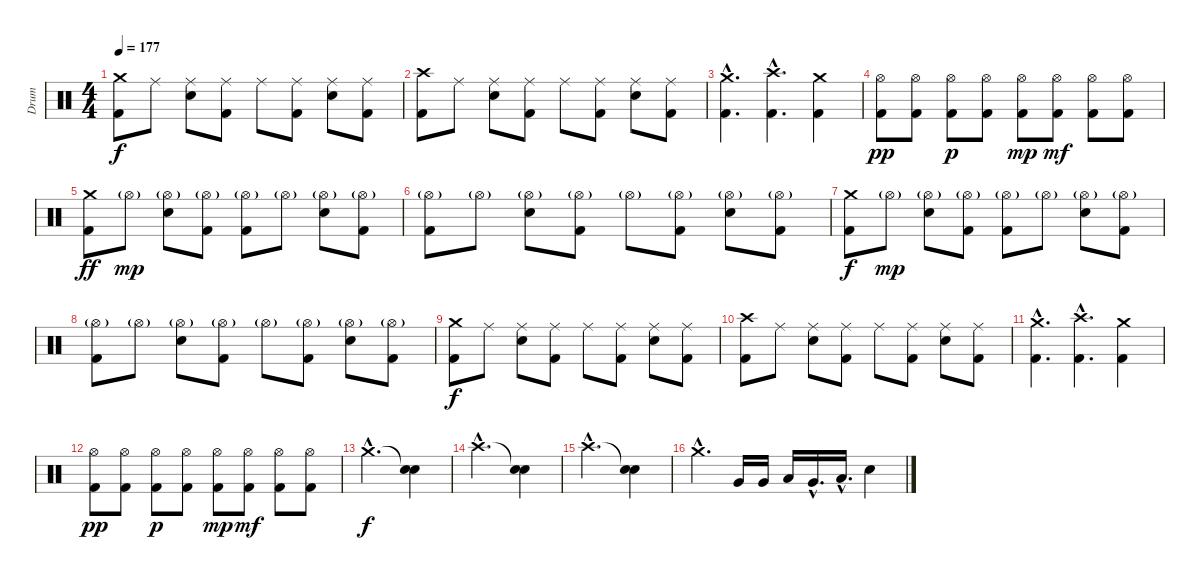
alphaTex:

\track ("Drum" "Drum") {instrument percussion}
\staff {score}
\articulation defaults
\ts (4 4)
\tempo 177
\clef neutral
\ks c
("Crash medium (hit)" "Kick (hit) 2").8{dy f} "Ride (middle)".8 ("Ride (middle)" "Electric Snare (hit)").8 ("Ride (middle)" "Kick (hit) 2").8 "Ride (middle)".8 ("Ride (middle)" "Kick (hit) 2").8 ("Ride (middle)" "Electric Snare (hit)").8 ("Ride (middle)" "Kick (hit) 2").8 |
("Crash high (hit)" "Kick (hit) 2").8 "Ride (middle)".8 ("Ride (middle)" "Electric Snare (hit)").8 ("Ride (middle)" "Kick (hit) 2").8 "Ride (middle)".8 ("Ride (middle)" "Kick (hit) 2").8 ("Ride (middle)" "Electric Snare (hit)").8 ("Ride (middle)" "Kick (hit) 2").8 |
("Crash medium (hit)"{hac} "Kick (hit) 2"{hac}).4{d} ("Crash high (hit)"{hac} "Kick (hit) 2"{hac}).4{d} ("Crash medium (hit)" "Kick (hit) 2").4 |
("Hi-Hat (open)" "Kick (hit) 2").8{dy pp} ("Hi-Hat (open)" "Kick (hit) 2").8 ("Hi-Hat (open)" "Kick (hit) 2").8{dy p} ("Hi-Hat (open)" "Kick (hit) 2").8 ("Hi-Hat (open)" "Kick (hit) 2").8{dy mp} ("Hi-Hat (open)" "Kick (hit) 2").8{dy mf} ("Hi-Hat (open)" "Kick (hit) 2").8 ("Hi-Hat (open)" "Kick (hit) 2").8 |
("Crash medium (hit)" "Kick (hit) 2").8{dy ff} "Hi-Hat (open)"{g}.8{dy mp} ("Hi-Hat (open)"{g} "Electric Snare (hit)").8 ("Hi-Hat (open)"{g} "Kick (hit) 2").8 ("Hi-Hat (open)"{g} "Kick (hit) 2").8 "Hi-Hat (open)"{g}.8 ("Hi-Hat (open)"{g} "Electric Snare (hit)").8 ("Hi-Hat (open)"{g} "Kick (hit) 2").8 |
("Hi-Hat (open)"{g} "Kick (hit) 2").8 "Hi-Hat (open)"{g}.8 ("Hi-Hat (open)"{g} "Electric Snare (hit)").8 ("Hi-Hat (open)"{g} "Kick (hit) 2").8 "Hi-Hat (open)"{g}.8 ("Hi-Hat (open)"{g} "Kick (hit) 2").8 ("Hi-Hat (open)"{g} "Electric Snare (hit)").8 ("Hi-Hat (open)"{g} "Kick (hit) 2").8 |
("Crash medium (hit)" "Kick (hit) 2").8{dy f} "Hi-Hat (open)"{g}.8{dy mp} ("Hi-Hat (open)"{g} "Electric Snare (hit)").8 ("Hi-Hat (open)"{g} "Kick (hit) 2").8 ("Hi-Hat (open)"{g} "Kick (hit) 2").8 "Hi-Hat (open)"{g}.8 ("Hi-Hat (open)"{g} "Electric Snare (hit)").8 ("Hi-Hat (open)"{g} "Kick (hit) 2").8 |
("Hi-Hat (open)"{g} "Kick (hit) 2").8 "Hi-Hat (open)"{g}.8 ("Hi-Hat (open)"{g} "Electric Snare (hit)").8 ("Hi-Hat (open)"{g} "Kick (hit) 2").8 "Hi-Hat (open)"{g}.8 ("Hi-Hat (open)"{g} "Kick (hit) 2").8 ("Hi-Hat (open)"{g} "Electric Snare (hit)").8 ("Hi-Hat (open)"{g} "Kick (hit) 2").8 |
("Crash medium (hit)" "Kick (hit) 2").8{dy f} "Ride (middle)".8 ("Ride (middle)" "Electric Snare (hit)").8 ("Ride (middle)" "Kick (hit) 2").8 "Ride (middle)".8 ("Ride (middle)" "Kick (hit) 2").8 ("Ride (middle)" "Electric Snare (hit)").8 ("Ride (middle)" "Kick (hit) 2").8 |
("Crash high (hit)" "Kick (hit) 2").8 "Ride (middle)".8 ("Ride (middle)" "Electric Snare (hit)").8 ("Ride (middle)" "Kick (hit) 2").8 "Ride (middle)".8 ("Ride (middle)" "Kick (hit) 2").8 ("Ride (middle)" "Electric Snare (hit)").8 ("Ride (middle)" "Kick (hit) 2").8 |
("Crash medium (hit)"{hac} "Kick (hit) 2"{hac}).4{d} ("Crash high (hit)"{hac} "Kick (hit) 2"{hac}).4{d} ("Crash medium (hit)" "Kick (hit) 2").4 |
("Hi-Hat (open)" "Kick (hit) 2").8{dy pp} ("Hi-Hat (open)" "Kick (hit) 2").8 ("Hi-Hat (open)" "Kick (hit) 2").8{dy p} ("Hi-Hat (open)" "Kick (hit) 2").8 ("Hi-Hat (open)" "Kick (hit) 2").8{dy mp} ("Hi-Hat (open)" "Kick (hit) 2").8{dy mf} ("Hi-Hat (open)" "Kick (hit) 2").8 ("Hi-Hat (open)" "Kick (hit) 2").8 |
"Crash medium (hit)"{hac}.2{d dy f} ("Snare (hit)"{t} "Electric Snare (hit)").4 |
"Crash high (hit)"{hac}.2{d} ("Snare (hit)"{t} "Electric Snare (hit)").4 |
"Crash high (hit)"{hac}.2{d} ("Snare (hit)"{t} "Electric Snare (hit)").4 |
"Crash medium (hit)"{hac}.4{d} "Very Low Tom (hit)".16 "Very Low Tom (hit)".16 "Low Tom (hit)".16 "Very Low Tom (hit)"{hac}.16{d} "Low Tom (hit)"{hac}.16{d} "Electric Snare (hit)".4
